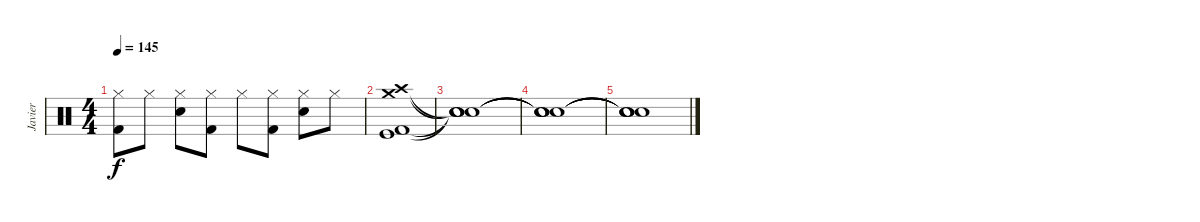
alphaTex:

\track ("Javier" "Javier") {instrument percussion}
\staff {score}
\articulation defaults
\ts (4 4)
\tempo 145
\clef neutral
\ks c
("Hi-Hat (closed)" "Kick (hit) 2").8{dy f} "Hi-Hat (closed)".8 ("Hi-Hat (closed)" "Snare (hit) 2").8 ("Hi-Hat (closed)" "Kick (hit) 2").8 "Hi-Hat (closed)".8 ("Hi-Hat (closed)" "Kick (hit) 2").8 ("Hi-Hat (closed)" "Snare (hit) 2").8 "Hi-Hat (closed)".8 |
("Crash high (hit)" "Kick (hit) 2" "Crash medium (hit)" "Kick (hit)").1{volume 0} |
("Snare (hit)"{t} "Snare (hit)"{t} "Snare (hit)"{t} "Snare (hit)"{t}).1 |
("Snare (hit)"{t} "Snare (hit)"{t} "Snare (hit)"{t} "Snare (hit)"{t}).1 |
("Snare (hit)"{t} "Snare (hit)"{t} "Snare (hit)"{t} "Snare (hit)"{t}).1
